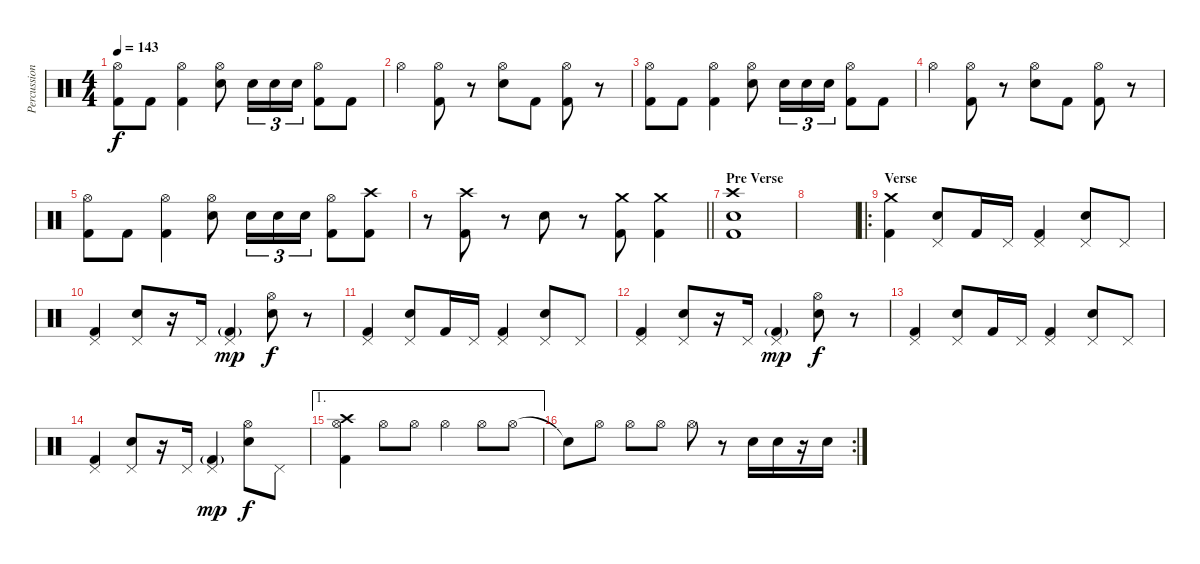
\track ("Percussion" "Percussion") {instrument percussion}
\staff {score}
\articulation defaults
\ts (4 4)
\tempo 143
\clef neutral
\ks c
("Hi-Hat (open)" "Kick (hit) 2").8{dy f} "Kick (hit) 2".8 ("Hi-Hat (open)" "Kick (hit) 2").4 ("Hi-Hat (open)" "Electric Snare (hit)").8 "Electric Snare (hit)".16{tu (3 2)} "Electric Snare (hit)".16{tu (3 2)} "Electric Snare (hit)".16{tu (3 2)} ("Hi-Hat (open)" "Kick (hit) 2").8 "Kick (hit) 2".8 |
"Hi-Hat (open)".4 ("Hi-Hat (open)" "Kick (hit) 2").8 r.8 ("Hi-Hat (open)" "Electric Snare (hit)").8 "Kick (hit) 2".8 ("Hi-Hat (open)" "Kick (hit) 2").8 r.8 |
("Hi-Hat (open)" "Kick (hit) 2").8 "Kick (hit) 2".8 ("Hi-Hat (open)" "Kick (hit) 2").4 ("Hi-Hat (open)" "Electric Snare (hit)").8 "Electric Snare (hit)".16{tu (3 2)} "Electric Snare (hit)".16{tu (3 2)} "Electric Snare (hit)".16{tu (3 2)} ("Hi-Hat (open)" "Kick (hit) 2").8 "Kick (hit) 2".8 |
"Hi-Hat (open)".4 ("Hi-Hat (open)" "Kick (hit) 2").8 r.8 ("Hi-Hat (open)" "Electric Snare (hit)").8 "Kick (hit) 2".8 ("Hi-Hat (open)" "Kick (hit) 2").8 r.8 |
("Hi-Hat (open)" "Kick (hit) 2").8 "Kick (hit) 2".8 ("Hi-Hat (open)" "Kick (hit) 2").4 ("Hi-Hat (open)" "Electric Snare (hit)").8 "Electric Snare (hit)".16{tu (3 2)} "Electric Snare (hit)".16{tu (3 2)} "Electric Snare (hit)".16{tu (3 2)} ("Hi-Hat (open)" "Kick (hit) 2").8 ("Crash high (hit)" "Kick (hit) 2").8 |
\barLineRight lightlight
r.8 ("Crash high (hit)" "Kick (hit) 2").8 r.8 "Electric Snare (hit)".8 r.8 ("Crash medium (hit)" "Kick (hit) 2").8 ("Crash medium (hit)" "Kick (hit) 2").4 |
\section ("" "Pre Verse")
("Crash high (hit)" "Electric Snare (hit)" "Kick (hit) 2").1 |
|
\ro
\section ("" "Verse")
("Crash medium (hit)" "Kick (hit) 2").4 ("Pedal Hi-Hat (hit)" "Electric Snare (hit)").8 "Kick (hit) 2".16 "Pedal Hi-Hat (hit)".16 ("Pedal Hi-Hat (hit)" "Kick (hit) 2").4 ("Pedal Hi-Hat (hit)" "Electric Snare (hit)").8 "Pedal Hi-Hat (hit)".8 |
("Pedal Hi-Hat (hit)" "Kick (hit) 2").4 ("Pedal Hi-Hat (hit)" "Electric Snare (hit)").8 r.16 "Pedal Hi-Hat (hit)".16 ("Pedal Hi-Hat (hit)" "Kick (hit) 2"{g}).4{dy mp} ("Hi-Hat (open)" "Electric Snare (hit)").8{dy f} r.8 |
("Pedal Hi-Hat (hit)" "Kick (hit) 2").4 ("Pedal Hi-Hat (hit)" "Electric Snare (hit)").8 "Kick (hit) 2".16 "Pedal Hi-Hat (hit)".16 ("Pedal Hi-Hat (hit)" "Kick (hit) 2").4 ("Pedal Hi-Hat (hit)" "Electric Snare (hit)").8 "Pedal Hi-Hat (hit)".8 |
("Pedal Hi-Hat (hit)" "Kick (hit) 2").4 ("Pedal Hi-Hat (hit)" "Electric Snare (hit)").8 r.16 "Pedal Hi-Hat (hit)".16 ("Pedal Hi-Hat (hit)" "Kick (hit) 2"{g}).4{dy mp} ("Hi-Hat (open)" "Electric Snare (hit)").8{dy f} r.8 |
("Pedal Hi-Hat (hit)" "Kick (hit) 2").4 ("Pedal Hi-Hat (hit)" "Electric Snare (hit)").8 "Kick (hit) 2".16 "Pedal Hi-Hat (hit)".16 ("Pedal Hi-Hat (hit)" "Kick (hit) 2").4 ("Pedal Hi-Hat (hit)" "Electric Snare (hit)").8 "Pedal Hi-Hat (hit)".8 |
("Pedal Hi-Hat (hit)" "Kick (hit) 2").4 ("Pedal Hi-Hat (hit)" "Electric Snare (hit)").8 r.16 "Pedal Hi-Hat (hit)".16 ("Pedal Hi-Hat (hit)" "Kick (hit) 2"{g}).4{dy mp} ("Hi-Hat (open)" "Electric Snare (hit)").8{dy f} "Pedal Hi-Hat (hit)".8 |
\ae 1
("Hi-Hat (open)" "Crash high (hit)" "Kick (hit) 2").4 "Hi-Hat (open)".8 "Hi-Hat (open)".8 "Hi-Hat (open)".4 "Hi-Hat (open)".8 "Hi-Hat (open)".8 |
\rc 2 "Snare (hit)"{t}.8 "Hi-Hat (open)".8 "Hi-Hat (open)".8 "Hi-Hat (open)".8 "Hi-Hat (open)".8
r.8 "Electric Snare (hit)".16 "Electric Snare (hit)".16 r.16 "Electric Snare (hit)".16
